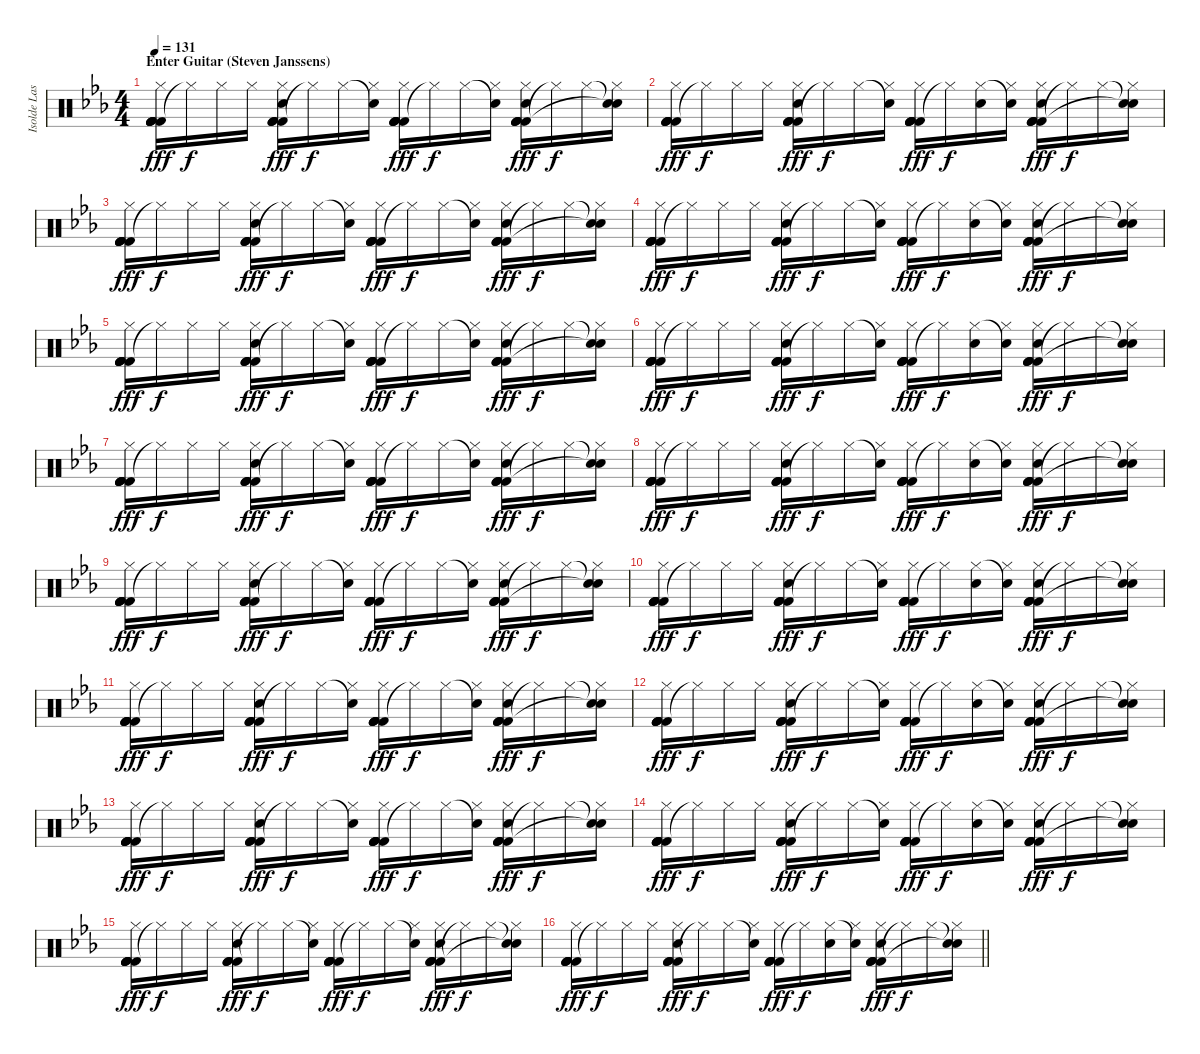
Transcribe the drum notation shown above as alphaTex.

\track ("Isolde Lasoen (Percussion)" "Isolde Las") {instrument percussion}
\staff {score}
\articulation defaults
\ts (4 4)
\section ("" "Enter Guitar (Steven Janssens)")
\tempo 131
\clef neutral
\ks cminor
("Kick (hit) 2" "Kick (hit) 2" "Kick (hit) 2" "Kick (hit) 2" "Hi-Hat (closed)" "Kick (hit) 2").16{dy fff} "Hi-Hat (closed)"{t}.16{dy f} "Hi-Hat (closed)".16 "Hi-Hat (closed)".16 ("Kick (hit) 2" "Kick (hit) 2" "Kick (hit) 2" "Kick (hit) 2" "Hi-Hat (closed)" "Hand Clap (hit)").16{dy fff} "Hi-Hat (closed)"{t}.16{dy f} "Hi-Hat (closed)".16 ("Snare (hit)"{t} "Hi-Hat (closed)").16 ("Kick (hit) 2" "Kick (hit) 2" "Kick (hit) 2" "Kick (hit) 2" "Hi-Hat (closed)" "Kick (hit) 2").16{dy fff} "Hi-Hat (closed)"{t}.16{dy f} "Hi-Hat (closed)".16 ("Snare (hit)"{t} "Hi-Hat (closed)").16 ("Kick (hit) 2" "Kick (hit) 2" "Kick (hit) 2" "Kick (hit) 2" "Hi-Hat (closed)" "Hand Clap (hit)").16{dy fff} "Hi-Hat (closed)"{t}.16{dy f} "Hi-Hat (closed)".16 ("Snare (hit)"{t} "Hi-Hat (closed)" "Snare (hit)"{t}).16 |
("Kick (hit) 2" "Kick (hit) 2" "Kick (hit) 2" "Kick (hit) 2" "Hi-Hat (closed)" "Kick (hit) 2").16{dy fff} "Hi-Hat (closed)"{t}.16{dy f} "Hi-Hat (closed)".16 "Hi-Hat (closed)".16 ("Kick (hit) 2" "Kick (hit) 2" "Kick (hit) 2" "Kick (hit) 2" "Hi-Hat (closed)" "Hand Clap (hit)").16{dy fff} "Hi-Hat (closed)"{t}.16{dy f} "Hi-Hat (closed)".16 ("Snare (hit)"{t} "Hi-Hat (closed)").16 ("Kick (hit) 2" "Kick (hit) 2" "Kick (hit) 2" "Kick (hit) 2" "Hi-Hat (closed)" "Kick (hit) 2").16{dy fff} "Hi-Hat (closed)"{t}.16{dy f} ("Hi-Hat (closed)" "Hand Clap (hit)").16 ("Snare (hit)"{t} "Hi-Hat (closed)").16 ("Kick (hit) 2" "Kick (hit) 2" "Kick (hit) 2" "Kick (hit) 2" "Hi-Hat (closed)" "Hand Clap (hit)").16{dy fff} "Hi-Hat (closed)"{t}.16{dy f} "Hi-Hat (closed)".16 ("Snare (hit)"{t} "Hi-Hat (closed)" "Snare (hit)"{t}).16 |
("Kick (hit) 2" "Kick (hit) 2" "Kick (hit) 2" "Kick (hit) 2" "Hi-Hat (closed)" "Kick (hit) 2").16{dy fff} "Hi-Hat (closed)"{t}.16{dy f} "Hi-Hat (closed)".16 "Hi-Hat (closed)".16 ("Kick (hit) 2" "Kick (hit) 2" "Kick (hit) 2" "Kick (hit) 2" "Hi-Hat (closed)" "Hand Clap (hit)").16{dy fff} "Hi-Hat (closed)"{t}.16{dy f} "Hi-Hat (closed)".16 ("Snare (hit)"{t} "Hi-Hat (closed)").16 ("Kick (hit) 2" "Kick (hit) 2" "Kick (hit) 2" "Kick (hit) 2" "Hi-Hat (closed)" "Kick (hit) 2").16{dy fff} "Hi-Hat (closed)"{t}.16{dy f} "Hi-Hat (closed)".16 ("Snare (hit)"{t} "Hi-Hat (closed)").16 ("Kick (hit) 2" "Kick (hit) 2" "Kick (hit) 2" "Kick (hit) 2" "Hi-Hat (closed)" "Hand Clap (hit)").16{dy fff} "Hi-Hat (closed)"{t}.16{dy f} "Hi-Hat (closed)".16 ("Snare (hit)"{t} "Hi-Hat (closed)" "Snare (hit)"{t}).16 |
("Kick (hit) 2" "Kick (hit) 2" "Kick (hit) 2" "Kick (hit) 2" "Hi-Hat (closed)" "Kick (hit) 2").16{dy fff} "Hi-Hat (closed)"{t}.16{dy f} "Hi-Hat (closed)".16 "Hi-Hat (closed)".16 ("Kick (hit) 2" "Kick (hit) 2" "Kick (hit) 2" "Kick (hit) 2" "Hi-Hat (closed)" "Hand Clap (hit)").16{dy fff} "Hi-Hat (closed)"{t}.16{dy f} "Hi-Hat (closed)".16 ("Snare (hit)"{t} "Hi-Hat (closed)").16 ("Kick (hit) 2" "Kick (hit) 2" "Kick (hit) 2" "Kick (hit) 2" "Hi-Hat (closed)" "Kick (hit) 2").16{dy fff} "Hi-Hat (closed)"{t}.16{dy f} ("Hi-Hat (closed)" "Hand Clap (hit)").16 ("Snare (hit)"{t} "Hi-Hat (closed)").16 ("Kick (hit) 2" "Kick (hit) 2" "Kick (hit) 2" "Kick (hit) 2" "Hi-Hat (closed)" "Hand Clap (hit)").16{dy fff} "Hi-Hat (closed)"{t}.16{dy f} "Hi-Hat (closed)".16 ("Snare (hit)"{t} "Hi-Hat (closed)" "Snare (hit)"{t}).16 |
("Kick (hit) 2" "Kick (hit) 2" "Kick (hit) 2" "Kick (hit) 2" "Hi-Hat (closed)" "Kick (hit) 2").16{dy fff} "Hi-Hat (closed)"{t}.16{dy f} "Hi-Hat (closed)".16 "Hi-Hat (closed)".16 ("Kick (hit) 2" "Kick (hit) 2" "Kick (hit) 2" "Kick (hit) 2" "Hi-Hat (closed)" "Hand Clap (hit)").16{dy fff} "Hi-Hat (closed)"{t}.16{dy f} "Hi-Hat (closed)".16 ("Snare (hit)"{t} "Hi-Hat (closed)").16 ("Kick (hit) 2" "Kick (hit) 2" "Kick (hit) 2" "Kick (hit) 2" "Hi-Hat (closed)" "Kick (hit) 2").16{dy fff} "Hi-Hat (closed)"{t}.16{dy f} "Hi-Hat (closed)".16 ("Snare (hit)"{t} "Hi-Hat (closed)").16 ("Kick (hit) 2" "Kick (hit) 2" "Kick (hit) 2" "Kick (hit) 2" "Hi-Hat (closed)" "Hand Clap (hit)").16{dy fff} "Hi-Hat (closed)"{t}.16{dy f} "Hi-Hat (closed)".16 ("Snare (hit)"{t} "Hi-Hat (closed)" "Snare (hit)"{t}).16 |
("Kick (hit) 2" "Kick (hit) 2" "Kick (hit) 2" "Kick (hit) 2" "Hi-Hat (closed)" "Kick (hit) 2").16{dy fff} "Hi-Hat (closed)"{t}.16{dy f} "Hi-Hat (closed)".16 "Hi-Hat (closed)".16 ("Kick (hit) 2" "Kick (hit) 2" "Kick (hit) 2" "Kick (hit) 2" "Hi-Hat (closed)" "Hand Clap (hit)").16{dy fff} "Hi-Hat (closed)"{t}.16{dy f} "Hi-Hat (closed)".16 ("Snare (hit)"{t} "Hi-Hat (closed)").16 ("Kick (hit) 2" "Kick (hit) 2" "Kick (hit) 2" "Kick (hit) 2" "Hi-Hat (closed)" "Kick (hit) 2").16{dy fff} "Hi-Hat (closed)"{t}.16{dy f} ("Hi-Hat (closed)" "Hand Clap (hit)").16 ("Snare (hit)"{t} "Hi-Hat (closed)").16 ("Kick (hit) 2" "Kick (hit) 2" "Kick (hit) 2" "Kick (hit) 2" "Hi-Hat (closed)" "Hand Clap (hit)").16{dy fff} "Hi-Hat (closed)"{t}.16{dy f} "Hi-Hat (closed)".16 ("Snare (hit)"{t} "Hi-Hat (closed)" "Snare (hit)"{t}).16 |
("Kick (hit) 2" "Kick (hit) 2" "Kick (hit) 2" "Kick (hit) 2" "Hi-Hat (closed)" "Kick (hit) 2").16{dy fff} "Hi-Hat (closed)"{t}.16{dy f} "Hi-Hat (closed)".16 "Hi-Hat (closed)".16 ("Kick (hit) 2" "Kick (hit) 2" "Kick (hit) 2" "Kick (hit) 2" "Hi-Hat (closed)" "Hand Clap (hit)").16{dy fff} "Hi-Hat (closed)"{t}.16{dy f} "Hi-Hat (closed)".16 ("Snare (hit)"{t} "Hi-Hat (closed)").16 ("Kick (hit) 2" "Kick (hit) 2" "Kick (hit) 2" "Kick (hit) 2" "Hi-Hat (closed)" "Kick (hit) 2").16{dy fff} "Hi-Hat (closed)"{t}.16{dy f} "Hi-Hat (closed)".16 ("Snare (hit)"{t} "Hi-Hat (closed)").16 ("Kick (hit) 2" "Kick (hit) 2" "Kick (hit) 2" "Kick (hit) 2" "Hi-Hat (closed)" "Hand Clap (hit)").16{dy fff} "Hi-Hat (closed)"{t}.16{dy f} "Hi-Hat (closed)".16 ("Snare (hit)"{t} "Hi-Hat (closed)" "Snare (hit)"{t}).16 |
("Kick (hit) 2" "Kick (hit) 2" "Kick (hit) 2" "Kick (hit) 2" "Hi-Hat (closed)" "Kick (hit) 2").16{dy fff} "Hi-Hat (closed)"{t}.16{dy f} "Hi-Hat (closed)".16 "Hi-Hat (closed)".16 ("Kick (hit) 2" "Kick (hit) 2" "Kick (hit) 2" "Kick (hit) 2" "Hi-Hat (closed)" "Hand Clap (hit)").16{dy fff} "Hi-Hat (closed)"{t}.16{dy f} "Hi-Hat (closed)".16 ("Snare (hit)"{t} "Hi-Hat (closed)").16 ("Kick (hit) 2" "Kick (hit) 2" "Kick (hit) 2" "Kick (hit) 2" "Hi-Hat (closed)" "Kick (hit) 2").16{dy fff} "Hi-Hat (closed)"{t}.16{dy f} ("Hi-Hat (closed)" "Hand Clap (hit)").16 ("Snare (hit)"{t} "Hi-Hat (closed)").16 ("Kick (hit) 2" "Kick (hit) 2" "Kick (hit) 2" "Kick (hit) 2" "Hi-Hat (closed)" "Hand Clap (hit)").16{dy fff} "Hi-Hat (closed)"{t}.16{dy f} "Hi-Hat (closed)".16 ("Snare (hit)"{t} "Hi-Hat (closed)" "Snare (hit)"{t}).16 |
("Kick (hit) 2" "Kick (hit) 2" "Kick (hit) 2" "Kick (hit) 2" "Hi-Hat (closed)" "Kick (hit) 2").16{dy fff} "Hi-Hat (closed)"{t}.16{dy f} "Hi-Hat (closed)".16 "Hi-Hat (closed)".16 ("Kick (hit) 2" "Kick (hit) 2" "Kick (hit) 2" "Kick (hit) 2" "Hi-Hat (closed)" "Hand Clap (hit)").16{dy fff} "Hi-Hat (closed)"{t}.16{dy f} "Hi-Hat (closed)".16 ("Snare (hit)"{t} "Hi-Hat (closed)").16 ("Kick (hit) 2" "Kick (hit) 2" "Kick (hit) 2" "Kick (hit) 2" "Hi-Hat (closed)" "Kick (hit) 2").16{dy fff} "Hi-Hat (closed)"{t}.16{dy f} "Hi-Hat (closed)".16 ("Snare (hit)"{t} "Hi-Hat (closed)").16 ("Kick (hit) 2" "Kick (hit) 2" "Kick (hit) 2" "Kick (hit) 2" "Hi-Hat (closed)" "Hand Clap (hit)").16{dy fff} "Hi-Hat (closed)"{t}.16{dy f} "Hi-Hat (closed)".16 ("Snare (hit)"{t} "Hi-Hat (closed)" "Snare (hit)"{t}).16 |
("Kick (hit) 2" "Kick (hit) 2" "Kick (hit) 2" "Kick (hit) 2" "Hi-Hat (closed)" "Kick (hit) 2").16{dy fff} "Hi-Hat (closed)"{t}.16{dy f} "Hi-Hat (closed)".16 "Hi-Hat (closed)".16 ("Kick (hit) 2" "Kick (hit) 2" "Kick (hit) 2" "Kick (hit) 2" "Hi-Hat (closed)" "Hand Clap (hit)").16{dy fff} "Hi-Hat (closed)"{t}.16{dy f} "Hi-Hat (closed)".16 ("Snare (hit)"{t} "Hi-Hat (closed)").16 ("Kick (hit) 2" "Kick (hit) 2" "Kick (hit) 2" "Kick (hit) 2" "Hi-Hat (closed)" "Kick (hit) 2").16{dy fff} "Hi-Hat (closed)"{t}.16{dy f} ("Hi-Hat (closed)" "Hand Clap (hit)").16 ("Snare (hit)"{t} "Hi-Hat (closed)").16 ("Kick (hit) 2" "Kick (hit) 2" "Kick (hit) 2" "Kick (hit) 2" "Hi-Hat (closed)" "Hand Clap (hit)").16{dy fff} "Hi-Hat (closed)"{t}.16{dy f} "Hi-Hat (closed)".16 ("Snare (hit)"{t} "Hi-Hat (closed)" "Snare (hit)"{t}).16 |
("Kick (hit) 2" "Kick (hit) 2" "Kick (hit) 2" "Kick (hit) 2" "Hi-Hat (closed)" "Kick (hit) 2").16{dy fff} "Hi-Hat (closed)"{t}.16{dy f} "Hi-Hat (closed)".16 "Hi-Hat (closed)".16 ("Kick (hit) 2" "Kick (hit) 2" "Kick (hit) 2" "Kick (hit) 2" "Hi-Hat (closed)" "Hand Clap (hit)").16{dy fff} "Hi-Hat (closed)"{t}.16{dy f} "Hi-Hat (closed)".16 ("Snare (hit)"{t} "Hi-Hat (closed)").16 ("Kick (hit) 2" "Kick (hit) 2" "Kick (hit) 2" "Kick (hit) 2" "Hi-Hat (closed)" "Kick (hit) 2").16{dy fff} "Hi-Hat (closed)"{t}.16{dy f} "Hi-Hat (closed)".16 ("Snare (hit)"{t} "Hi-Hat (closed)").16 ("Kick (hit) 2" "Kick (hit) 2" "Kick (hit) 2" "Kick (hit) 2" "Hi-Hat (closed)" "Hand Clap (hit)").16{dy fff} "Hi-Hat (closed)"{t}.16{dy f} "Hi-Hat (closed)".16 ("Snare (hit)"{t} "Hi-Hat (closed)" "Snare (hit)"{t}).16 |
("Kick (hit) 2" "Kick (hit) 2" "Kick (hit) 2" "Kick (hit) 2" "Hi-Hat (closed)" "Kick (hit) 2").16{dy fff} "Hi-Hat (closed)"{t}.16{dy f} "Hi-Hat (closed)".16 "Hi-Hat (closed)".16 ("Kick (hit) 2" "Kick (hit) 2" "Kick (hit) 2" "Kick (hit) 2" "Hi-Hat (closed)" "Hand Clap (hit)").16{dy fff} "Hi-Hat (closed)"{t}.16{dy f} "Hi-Hat (closed)".16 ("Snare (hit)"{t} "Hi-Hat (closed)").16 ("Kick (hit) 2" "Kick (hit) 2" "Kick (hit) 2" "Kick (hit) 2" "Hi-Hat (closed)" "Kick (hit) 2").16{dy fff} "Hi-Hat (closed)"{t}.16{dy f} ("Hi-Hat (closed)" "Hand Clap (hit)").16 ("Snare (hit)"{t} "Hi-Hat (closed)").16 ("Kick (hit) 2" "Kick (hit) 2" "Kick (hit) 2" "Kick (hit) 2" "Hi-Hat (closed)" "Hand Clap (hit)").16{dy fff} "Hi-Hat (closed)"{t}.16{dy f} "Hi-Hat (closed)".16 ("Snare (hit)"{t} "Hi-Hat (closed)" "Snare (hit)"{t}).16 |
("Kick (hit) 2" "Kick (hit) 2" "Kick (hit) 2" "Kick (hit) 2" "Hi-Hat (closed)" "Kick (hit) 2").16{dy fff} "Hi-Hat (closed)"{t}.16{dy f} "Hi-Hat (closed)".16 "Hi-Hat (closed)".16 ("Kick (hit) 2" "Kick (hit) 2" "Kick (hit) 2" "Kick (hit) 2" "Hi-Hat (closed)" "Hand Clap (hit)").16{dy fff} "Hi-Hat (closed)"{t}.16{dy f} "Hi-Hat (closed)".16 ("Snare (hit)"{t} "Hi-Hat (closed)").16 ("Kick (hit) 2" "Kick (hit) 2" "Kick (hit) 2" "Kick (hit) 2" "Hi-Hat (closed)" "Kick (hit) 2").16{dy fff} "Hi-Hat (closed)"{t}.16{dy f} "Hi-Hat (closed)".16 ("Snare (hit)"{t} "Hi-Hat (closed)").16 ("Kick (hit) 2" "Kick (hit) 2" "Kick (hit) 2" "Kick (hit) 2" "Hi-Hat (closed)" "Hand Clap (hit)").16{dy fff} "Hi-Hat (closed)"{t}.16{dy f} "Hi-Hat (closed)".16 ("Snare (hit)"{t} "Hi-Hat (closed)" "Snare (hit)"{t}).16 |
("Kick (hit) 2" "Kick (hit) 2" "Kick (hit) 2" "Kick (hit) 2" "Hi-Hat (closed)" "Kick (hit) 2").16{dy fff} "Hi-Hat (closed)"{t}.16{dy f} "Hi-Hat (closed)".16 "Hi-Hat (closed)".16 ("Kick (hit) 2" "Kick (hit) 2" "Kick (hit) 2" "Kick (hit) 2" "Hi-Hat (closed)" "Hand Clap (hit)").16{dy fff} "Hi-Hat (closed)"{t}.16{dy f} "Hi-Hat (closed)".16 ("Snare (hit)"{t} "Hi-Hat (closed)").16 ("Kick (hit) 2" "Kick (hit) 2" "Kick (hit) 2" "Kick (hit) 2" "Hi-Hat (closed)" "Kick (hit) 2").16{dy fff} "Hi-Hat (closed)"{t}.16{dy f} ("Hi-Hat (closed)" "Hand Clap (hit)").16 ("Snare (hit)"{t} "Hi-Hat (closed)").16 ("Kick (hit) 2" "Kick (hit) 2" "Kick (hit) 2" "Kick (hit) 2" "Hi-Hat (closed)" "Hand Clap (hit)").16{dy fff} "Hi-Hat (closed)"{t}.16{dy f} "Hi-Hat (closed)".16 ("Snare (hit)"{t} "Hi-Hat (closed)" "Snare (hit)"{t}).16 |
("Kick (hit) 2" "Kick (hit) 2" "Kick (hit) 2" "Kick (hit) 2" "Hi-Hat (closed)" "Kick (hit) 2").16{dy fff} "Hi-Hat (closed)"{t}.16{dy f} "Hi-Hat (closed)".16 "Hi-Hat (closed)".16 ("Kick (hit) 2" "Kick (hit) 2" "Kick (hit) 2" "Kick (hit) 2" "Hi-Hat (closed)" "Hand Clap (hit)").16{dy fff} "Hi-Hat (closed)"{t}.16{dy f} "Hi-Hat (closed)".16 ("Snare (hit)"{t} "Hi-Hat (closed)").16 ("Kick (hit) 2" "Kick (hit) 2" "Kick (hit) 2" "Kick (hit) 2" "Hi-Hat (closed)" "Kick (hit) 2").16{dy fff} "Hi-Hat (closed)"{t}.16{dy f} "Hi-Hat (closed)".16 ("Snare (hit)"{t} "Hi-Hat (closed)").16 ("Kick (hit) 2" "Kick (hit) 2" "Kick (hit) 2" "Kick (hit) 2" "Hi-Hat (closed)" "Hand Clap (hit)").16{dy fff} "Hi-Hat (closed)"{t}.16{dy f} "Hi-Hat (closed)".16 ("Snare (hit)"{t} "Hi-Hat (closed)" "Snare (hit)"{t}).16 |
\barLineRight lightlight
("Kick (hit) 2" "Kick (hit) 2" "Kick (hit) 2" "Kick (hit) 2" "Hi-Hat (closed)" "Kick (hit) 2").16{dy fff} "Hi-Hat (closed)"{t}.16{dy f} "Hi-Hat (closed)".16 "Hi-Hat (closed)".16 ("Kick (hit) 2" "Kick (hit) 2" "Kick (hit) 2" "Kick (hit) 2" "Hi-Hat (closed)" "Hand Clap (hit)").16{dy fff} "Hi-Hat (closed)"{t}.16{dy f} "Hi-Hat (closed)".16 ("Snare (hit)"{t} "Hi-Hat (closed)").16 ("Kick (hit) 2" "Kick (hit) 2" "Kick (hit) 2" "Kick (hit) 2" "Hi-Hat (closed)" "Kick (hit) 2").16{dy fff} "Hi-Hat (closed)"{t}.16{dy f} ("Hi-Hat (closed)" "Hand Clap (hit)").16 ("Snare (hit)"{t} "Hi-Hat (closed)").16 ("Kick (hit) 2" "Kick (hit) 2" "Kick (hit) 2" "Kick (hit) 2" "Hi-Hat (closed)" "Hand Clap (hit)").16{dy fff} "Hi-Hat (closed)"{t}.16{dy f} "Hi-Hat (closed)".16 ("Snare (hit)"{t} "Hi-Hat (closed)" "Snare (hit)"{t}).16
